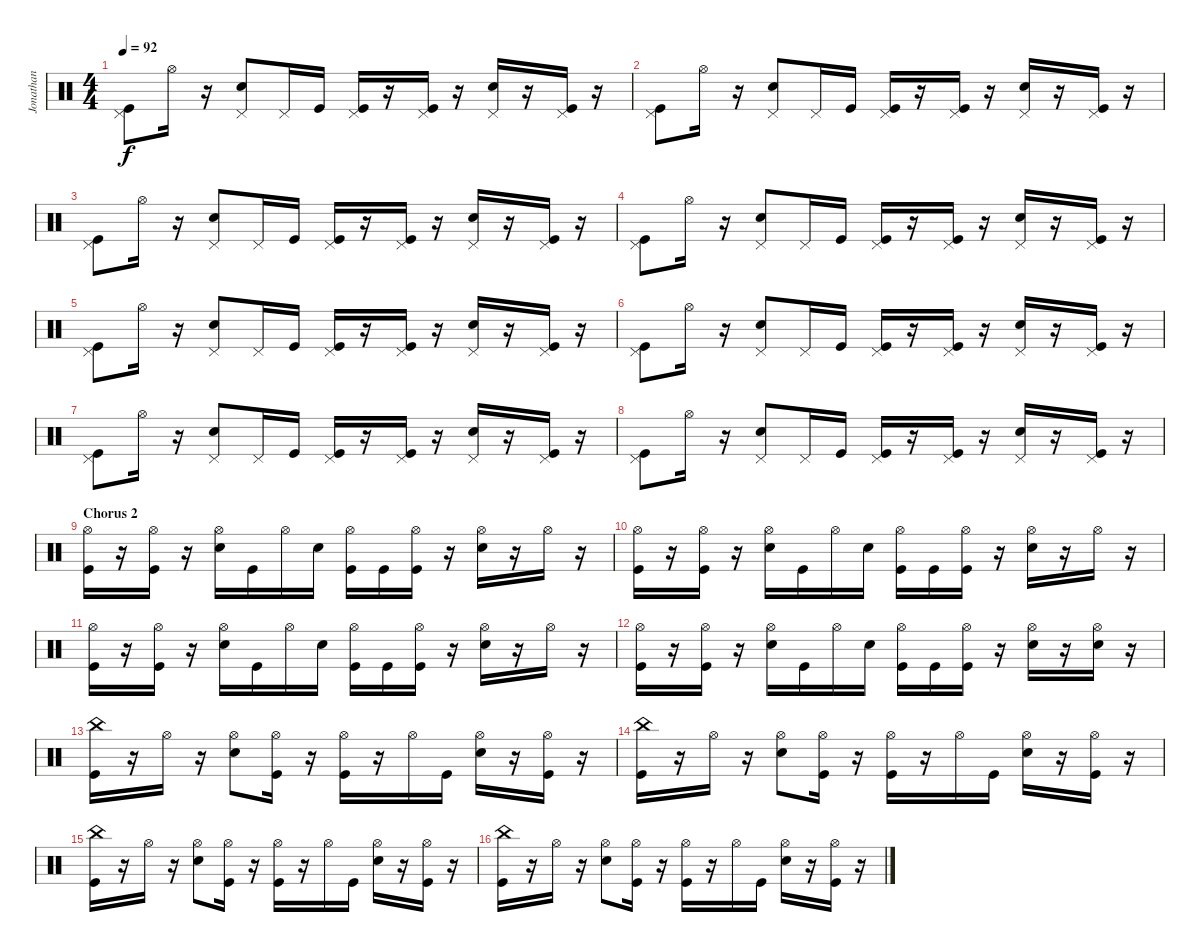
\track ("Jonathan" "Jonathan") {instrument percussion}
\staff {score}
\articulation defaults
\ts (4 4)
\tempo 92
\clef neutral
\ks c
("Pedal Hi-Hat (hit)" "Kick (hit)").8{dy f} "Hi-Hat (open)".16 r.16 ("Pedal Hi-Hat (hit)" "Electric Snare (hit)").8 "Pedal Hi-Hat (hit)".16 "Kick (hit)".16 ("Pedal Hi-Hat (hit)" "Kick (hit)").16 r.16 ("Pedal Hi-Hat (hit)" "Kick (hit)").16 r.16 ("Pedal Hi-Hat (hit)" "Electric Snare (hit)").16 r.16 ("Pedal Hi-Hat (hit)" "Kick (hit)").16 r.16 |
("Pedal Hi-Hat (hit)" "Kick (hit)").8 "Hi-Hat (open)".16 r.16 ("Pedal Hi-Hat (hit)" "Electric Snare (hit)").8 "Pedal Hi-Hat (hit)".16 "Kick (hit)".16 ("Pedal Hi-Hat (hit)" "Kick (hit)").16 r.16 ("Pedal Hi-Hat (hit)" "Kick (hit)").16 r.16 ("Pedal Hi-Hat (hit)" "Electric Snare (hit)").16 r.16 ("Pedal Hi-Hat (hit)" "Kick (hit)").16 r.16 |
("Pedal Hi-Hat (hit)" "Kick (hit)").8 "Hi-Hat (open)".16 r.16 ("Pedal Hi-Hat (hit)" "Electric Snare (hit)").8 "Pedal Hi-Hat (hit)".16 "Kick (hit)".16 ("Pedal Hi-Hat (hit)" "Kick (hit)").16 r.16 ("Pedal Hi-Hat (hit)" "Kick (hit)").16 r.16 ("Pedal Hi-Hat (hit)" "Electric Snare (hit)").16 r.16 ("Pedal Hi-Hat (hit)" "Kick (hit)").16 r.16 |
("Pedal Hi-Hat (hit)" "Kick (hit)").8 "Hi-Hat (open)".16 r.16 ("Pedal Hi-Hat (hit)" "Electric Snare (hit)").8 "Pedal Hi-Hat (hit)".16 "Kick (hit)".16 ("Pedal Hi-Hat (hit)" "Kick (hit)").16 r.16 ("Pedal Hi-Hat (hit)" "Kick (hit)").16 r.16 ("Pedal Hi-Hat (hit)" "Electric Snare (hit)").16 r.16 ("Pedal Hi-Hat (hit)" "Kick (hit)").16 r.16 |
("Pedal Hi-Hat (hit)" "Kick (hit)").8 "Hi-Hat (open)".16 r.16 ("Pedal Hi-Hat (hit)" "Electric Snare (hit)").8 "Pedal Hi-Hat (hit)".16 "Kick (hit)".16 ("Pedal Hi-Hat (hit)" "Kick (hit)").16 r.16 ("Pedal Hi-Hat (hit)" "Kick (hit)").16 r.16 ("Pedal Hi-Hat (hit)" "Electric Snare (hit)").16 r.16 ("Pedal Hi-Hat (hit)" "Kick (hit)").16 r.16 |
("Pedal Hi-Hat (hit)" "Kick (hit)").8 "Hi-Hat (open)".16 r.16 ("Pedal Hi-Hat (hit)" "Electric Snare (hit)").8 "Pedal Hi-Hat (hit)".16 "Kick (hit)".16 ("Pedal Hi-Hat (hit)" "Kick (hit)").16 r.16 ("Pedal Hi-Hat (hit)" "Kick (hit)").16 r.16 ("Pedal Hi-Hat (hit)" "Electric Snare (hit)").16 r.16 ("Pedal Hi-Hat (hit)" "Kick (hit)").16 r.16 |
("Pedal Hi-Hat (hit)" "Kick (hit)").8 "Hi-Hat (open)".16 r.16 ("Pedal Hi-Hat (hit)" "Electric Snare (hit)").8 "Pedal Hi-Hat (hit)".16 "Kick (hit)".16 ("Pedal Hi-Hat (hit)" "Kick (hit)").16 r.16 ("Pedal Hi-Hat (hit)" "Kick (hit)").16 r.16 ("Pedal Hi-Hat (hit)" "Electric Snare (hit)").16 r.16 ("Pedal Hi-Hat (hit)" "Kick (hit)").16 r.16 |
("Pedal Hi-Hat (hit)" "Kick (hit)").8 "Hi-Hat (open)".16 r.16 ("Pedal Hi-Hat (hit)" "Electric Snare (hit)").8 "Pedal Hi-Hat (hit)".16 "Kick (hit)".16 ("Pedal Hi-Hat (hit)" "Kick (hit)").16 r.16 ("Pedal Hi-Hat (hit)" "Kick (hit)").16 r.16 ("Pedal Hi-Hat (hit)" "Electric Snare (hit)").16 r.16 ("Pedal Hi-Hat (hit)" "Kick (hit)").16 r.16 |
\section ("" "Chorus 2")
("Hi-Hat (open)" "Kick (hit)").16 r.16 ("Hi-Hat (open)" "Kick (hit)").16 r.16 ("Hi-Hat (open)" "Electric Snare (hit)").16 "Kick (hit)".16 "Hi-Hat (open)".16 "Electric Snare (hit)".16 ("Hi-Hat (open)" "Kick (hit)").16 "Kick (hit)".16 ("Hi-Hat (open)" "Kick (hit)").16 r.16 ("Hi-Hat (open)" "Electric Snare (hit)").16 r.16 "Hi-Hat (open)".16 r.16 |
("Hi-Hat (open)" "Kick (hit)").16 r.16 ("Hi-Hat (open)" "Kick (hit)").16 r.16 ("Hi-Hat (open)" "Electric Snare (hit)").16 "Kick (hit)".16 "Hi-Hat (open)".16 "Electric Snare (hit)".16 ("Hi-Hat (open)" "Kick (hit)").16 "Kick (hit)".16 ("Hi-Hat (open)" "Kick (hit)").16 r.16 ("Hi-Hat (open)" "Electric Snare (hit)").16 r.16 "Hi-Hat (open)".16 r.16 |
("Hi-Hat (open)" "Kick (hit)").16 r.16 ("Hi-Hat (open)" "Kick (hit)").16 r.16 ("Hi-Hat (open)" "Electric Snare (hit)").16 "Kick (hit)".16 "Hi-Hat (open)".16 "Electric Snare (hit)".16 ("Hi-Hat (open)" "Kick (hit)").16 "Kick (hit)".16 ("Hi-Hat (open)" "Kick (hit)").16 r.16 ("Hi-Hat (open)" "Electric Snare (hit)").16 r.16 "Hi-Hat (open)".16 r.16 |
("Hi-Hat (open)" "Kick (hit)").16 r.16 ("Hi-Hat (open)" "Kick (hit)").16 r.16 ("Hi-Hat (open)" "Electric Snare (hit)").16 "Kick (hit)".16 "Hi-Hat (open)".16 "Electric Snare (hit)".16 ("Hi-Hat (open)" "Kick (hit)").16 "Kick (hit)".16 ("Hi-Hat (open)" "Kick (hit)").16 r.16 ("Hi-Hat (open)" "Electric Snare (hit)").16 r.16 ("Hi-Hat (open)" "Electric Snare (hit)").16 r.16 |
("China (hit)" "Kick (hit)").16 r.16 "Hi-Hat (open)".16 r.16 ("Hi-Hat (open)" "Electric Snare (hit)").8 ("Hi-Hat (open)" "Kick (hit)").16 r.16 ("Hi-Hat (open)" "Kick (hit)").16 r.16 "Hi-Hat (open)".16 "Kick (hit)".16 ("Hi-Hat (open)" "Electric Snare (hit)").16 r.16 ("Hi-Hat (open)" "Kick (hit)").16 r.16 |
("China (hit)" "Kick (hit)").16 r.16 "Hi-Hat (open)".16 r.16 ("Hi-Hat (open)" "Electric Snare (hit)").8 ("Hi-Hat (open)" "Kick (hit)").16 r.16 ("Hi-Hat (open)" "Kick (hit)").16 r.16 "Hi-Hat (open)".16 "Kick (hit)".16 ("Hi-Hat (open)" "Electric Snare (hit)").16 r.16 ("Hi-Hat (open)" "Kick (hit)").16 r.16 |
("China (hit)" "Kick (hit)").16 r.16 "Hi-Hat (open)".16 r.16 ("Hi-Hat (open)" "Electric Snare (hit)").8 ("Hi-Hat (open)" "Kick (hit)").16 r.16 ("Hi-Hat (open)" "Kick (hit)").16 r.16 "Hi-Hat (open)".16 "Kick (hit)".16 ("Hi-Hat (open)" "Electric Snare (hit)").16 r.16 ("Hi-Hat (open)" "Kick (hit)").16 r.16 |
("China (hit)" "Kick (hit)").16 r.16 "Hi-Hat (open)".16 r.16 ("Hi-Hat (open)" "Electric Snare (hit)").8 ("Hi-Hat (open)" "Kick (hit)").16 r.16 ("Hi-Hat (open)" "Kick (hit)").16 r.16 "Hi-Hat (open)".16 "Kick (hit)".16 ("Hi-Hat (open)" "Electric Snare (hit)").16 r.16 ("Hi-Hat (open)" "Kick (hit)").16 r.16
